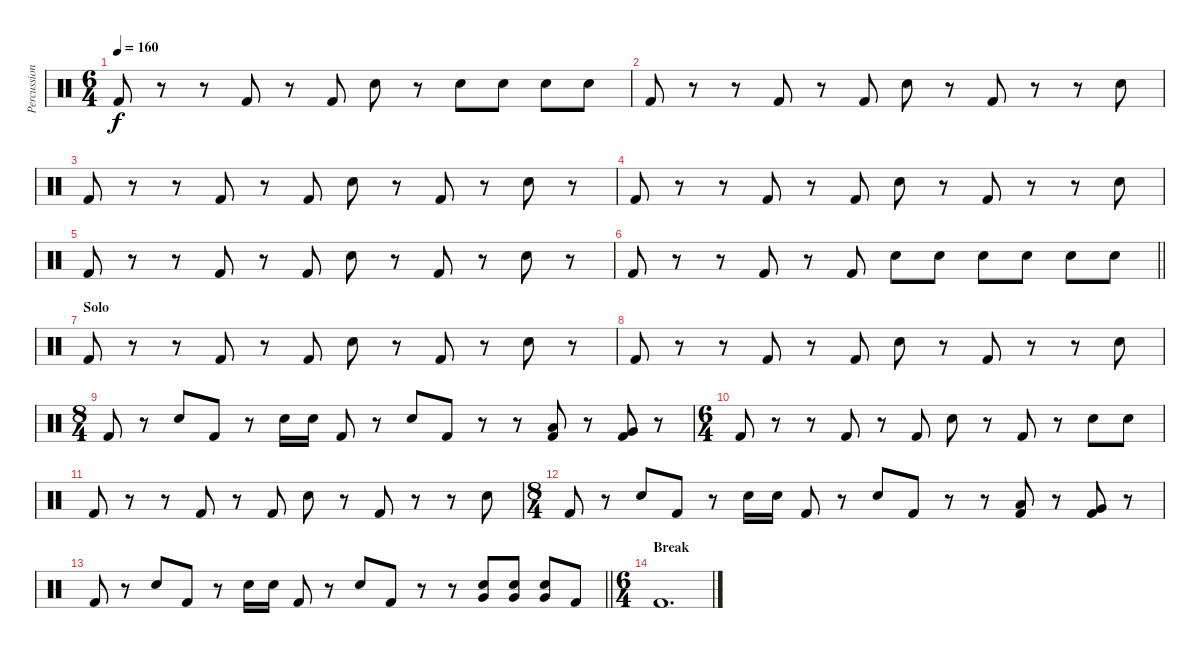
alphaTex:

\track ("Percussion" "Percussion") {instrument percussion}
\staff {score}
\articulation defaults
\ts (6 4)
\tempo 160
\clef neutral
\ks c "Kick (hit) 2".8{dy f}
r.8 r.8 "Kick (hit) 2".8 r.8 "Kick (hit) 2".8 "Snare (hit) 2".8 r.8 "Snare (hit) 2".8 "Snare (hit) 2".8 "Snare (hit) 2".8 "Snare (hit) 2".8 |
"Kick (hit) 2".8 r.8 r.8 "Kick (hit) 2".8 r.8 "Kick (hit) 2".8 "Snare (hit) 2".8 r.8 "Kick (hit) 2".8 r.8 r.8 "Snare (hit) 2".8 |
"Kick (hit) 2".8 r.8 r.8 "Kick (hit) 2".8 r.8 "Kick (hit) 2".8 "Snare (hit) 2".8 r.8 "Kick (hit) 2".8 r.8 "Snare (hit) 2".8 r.8 |
"Kick (hit) 2".8 r.8 r.8 "Kick (hit) 2".8 r.8 "Kick (hit) 2".8 "Snare (hit) 2".8 r.8 "Kick (hit) 2".8 r.8 r.8 "Snare (hit) 2".8 |
"Kick (hit) 2".8 r.8 r.8 "Kick (hit) 2".8 r.8 "Kick (hit) 2".8 "Snare (hit) 2".8 r.8 "Kick (hit) 2".8 r.8 "Snare (hit) 2".8 r.8 |
\barLineRight lightlight "Kick (hit) 2".8
r.8 r.8 "Kick (hit) 2".8 r.8 "Kick (hit) 2".8 "Snare (hit) 2".8 "Snare (hit) 2".8 "Snare (hit) 2".8 "Snare (hit) 2".8 "Snare (hit) 2".8 "Snare (hit) 2".8 |
\section ("" "Solo")
"Kick (hit) 2".8 r.8 r.8 "Kick (hit) 2".8 r.8 "Kick (hit) 2".8 "Snare (hit) 2".8 r.8 "Kick (hit) 2".8 r.8 "Snare (hit) 2".8 r.8 |
"Kick (hit) 2".8 r.8 r.8 "Kick (hit) 2".8 r.8 "Kick (hit) 2".8 "Snare (hit) 2".8 r.8 "Kick (hit) 2".8 r.8 r.8 "Snare (hit) 2".8 |
\ts (8 4)
"Kick (hit) 2".8 r.8 "Snare (hit) 2".8 "Kick (hit) 2".8 r.8 "Snare (hit) 2".16 "Snare (hit) 2".16 "Kick (hit) 2".8 r.8 "Snare (hit) 2".8 "Kick (hit) 2".8 r.8 r.8 ("Low Tom (hit)" "Kick (hit) 2").8 r.8 ("Very Low Tom (hit)" "Kick (hit) 2").8 r.8 |
\ts (6 4)
"Kick (hit) 2".8 r.8 r.8 "Kick (hit) 2".8 r.8 "Kick (hit) 2".8 "Snare (hit) 2".8 r.8 "Kick (hit) 2".8 r.8 "Snare (hit) 2".8 "Snare (hit) 2".8 |
"Kick (hit) 2".8 r.8 r.8 "Kick (hit) 2".8 r.8 "Kick (hit) 2".8 "Snare (hit) 2".8 r.8 "Kick (hit) 2".8 r.8 r.8 "Snare (hit) 2".8 |
\ts (8 4)
"Kick (hit) 2".8 r.8 "Snare (hit) 2".8 "Kick (hit) 2".8 r.8 "Snare (hit) 2".16 "Snare (hit) 2".16 "Kick (hit) 2".8 r.8 "Snare (hit) 2".8 "Kick (hit) 2".8 r.8 r.8 ("Low Tom (hit)" "Kick (hit) 2").8 r.8 ("Very Low Tom (hit)" "Kick (hit) 2").8 r.8 |
\barLineRight lightlight "Kick (hit) 2".8
r.8 "Snare (hit) 2".8 "Kick (hit) 2".8 r.8 "Snare (hit) 2".16 "Snare (hit) 2".16 "Kick (hit) 2".8 r.8 "Snare (hit) 2".8 "Kick (hit) 2".8 r.8 r.8 ("Snare (hit) 2" "Very Low Tom (hit)").8 ("Snare (hit) 2" "Very Low Tom (hit)").8 ("Snare (hit) 2" "Very Low Tom (hit)").8 "Kick (hit) 2".8 |
\ts (6 4)
\section ("" "Break")
"Kick (hit) 2".1{d}
